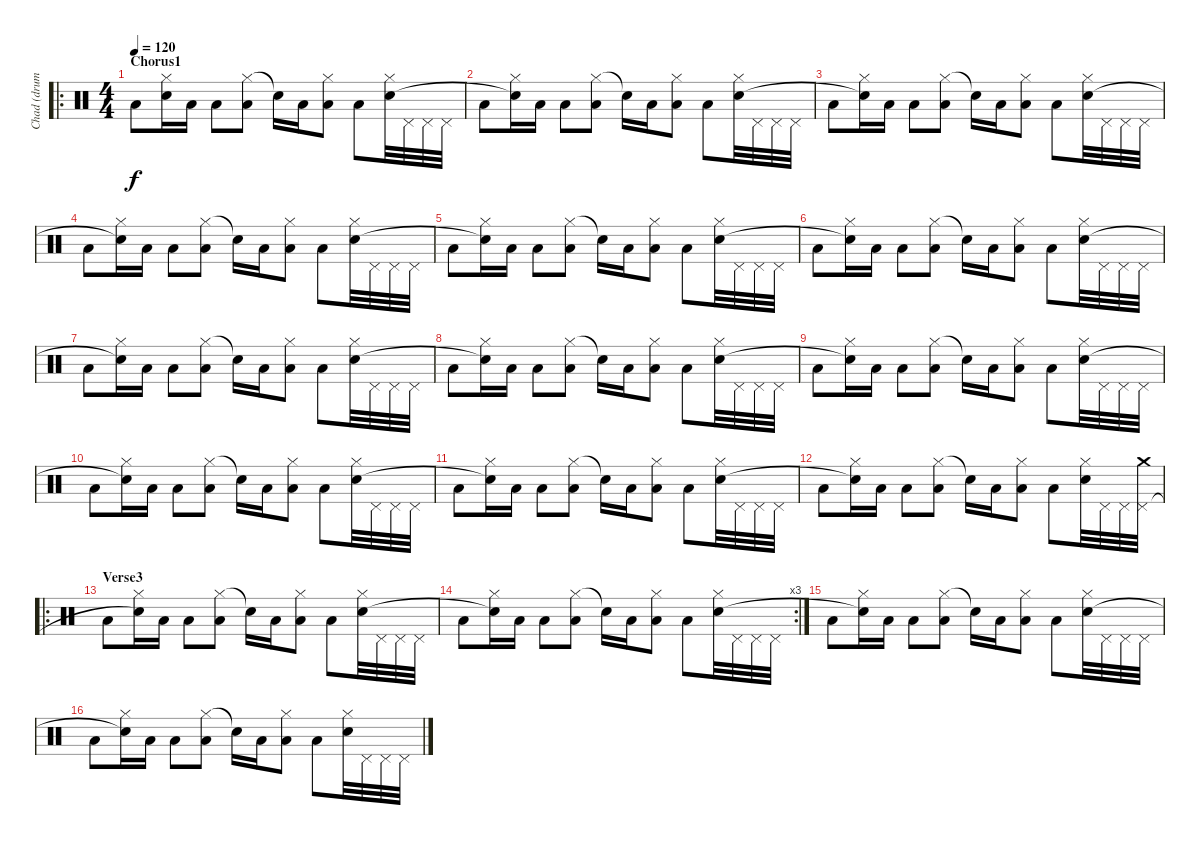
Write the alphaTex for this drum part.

\track ("Chad (drums)" "Chad (drum") {instrument percussion}
\staff {score}
\articulation defaults
\ro
\ts (4 4)
\section ("" "Chorus1")
\tempo 120
\clef neutral
\ks c "Low Tom (hit)".8{dy f}
("Hi-Hat (closed)" "Snare (hit)"{t}).16 "Low Tom (hit)".16 "Low Floor Tom (hit)".8 ("Hi-Hat (closed)" "Low Tom (hit)").8 "Snare (hit)"{t}.16 "Low Tom (hit)".16 ("Hi-Hat (closed)" "Low Floor Tom (hit)").8 "Low Tom (hit)".8 ("Hi-Hat (closed)" "Snare (hit) 2").32 "Pedal Hi-Hat (hit)".32 "Pedal Hi-Hat (hit)".32 "Pedal Hi-Hat (hit)".32 |
"Low Tom (hit)".8 ("Hi-Hat (closed)" "Snare (hit)"{t}).16 "Low Tom (hit)".16 "Low Floor Tom (hit)".8 ("Hi-Hat (closed)" "Low Tom (hit)").8 "Snare (hit)"{t}.16 "Low Tom (hit)".16 ("Hi-Hat (closed)" "Low Floor Tom (hit)").8 "Low Tom (hit)".8 ("Hi-Hat (closed)" "Snare (hit) 2").32 "Pedal Hi-Hat (hit)".32 "Pedal Hi-Hat (hit)".32 "Pedal Hi-Hat (hit)".32 |
"Low Tom (hit)".8 ("Hi-Hat (closed)" "Snare (hit)"{t}).16 "Low Tom (hit)".16 "Low Floor Tom (hit)".8 ("Hi-Hat (closed)" "Low Tom (hit)").8 "Snare (hit)"{t}.16 "Low Tom (hit)".16 ("Hi-Hat (closed)" "Low Floor Tom (hit)").8 "Low Tom (hit)".8 ("Hi-Hat (closed)" "Snare (hit) 2").32 "Pedal Hi-Hat (hit)".32 "Pedal Hi-Hat (hit)".32 "Pedal Hi-Hat (hit)".32 |
"Low Tom (hit)".8 ("Hi-Hat (closed)" "Snare (hit)"{t}).16 "Low Tom (hit)".16 "Low Floor Tom (hit)".8 ("Hi-Hat (closed)" "Low Tom (hit)").8 "Snare (hit)"{t}.16 "Low Tom (hit)".16 ("Hi-Hat (closed)" "Low Floor Tom (hit)").8 "Low Tom (hit)".8 ("Hi-Hat (closed)" "Snare (hit) 2").32 "Pedal Hi-Hat (hit)".32 "Pedal Hi-Hat (hit)".32 "Pedal Hi-Hat (hit)".32 |
"Low Tom (hit)".8 ("Hi-Hat (closed)" "Snare (hit)"{t}).16 "Low Tom (hit)".16 "Low Floor Tom (hit)".8 ("Hi-Hat (closed)" "Low Tom (hit)").8 "Snare (hit)"{t}.16 "Low Tom (hit)".16 ("Hi-Hat (closed)" "Low Floor Tom (hit)").8 "Low Tom (hit)".8 ("Hi-Hat (closed)" "Snare (hit) 2").32 "Pedal Hi-Hat (hit)".32 "Pedal Hi-Hat (hit)".32 "Pedal Hi-Hat (hit)".32 |
"Low Tom (hit)".8 ("Hi-Hat (closed)" "Snare (hit)"{t}).16 "Low Tom (hit)".16 "Low Floor Tom (hit)".8 ("Hi-Hat (closed)" "Low Tom (hit)").8 "Snare (hit)"{t}.16 "Low Tom (hit)".16 ("Hi-Hat (closed)" "Low Floor Tom (hit)").8 "Low Tom (hit)".8 ("Hi-Hat (closed)" "Snare (hit) 2").32 "Pedal Hi-Hat (hit)".32 "Pedal Hi-Hat (hit)".32 "Pedal Hi-Hat (hit)".32 |
"Low Tom (hit)".8 ("Hi-Hat (closed)" "Snare (hit)"{t}).16 "Low Tom (hit)".16 "Low Floor Tom (hit)".8 ("Hi-Hat (closed)" "Low Tom (hit)").8 "Snare (hit)"{t}.16 "Low Tom (hit)".16 ("Hi-Hat (closed)" "Low Floor Tom (hit)").8 "Low Tom (hit)".8 ("Hi-Hat (closed)" "Snare (hit) 2").32 "Pedal Hi-Hat (hit)".32 "Pedal Hi-Hat (hit)".32 "Pedal Hi-Hat (hit)".32 |
"Low Tom (hit)".8 ("Hi-Hat (closed)" "Snare (hit)"{t}).16 "Low Tom (hit)".16 "Low Floor Tom (hit)".8 ("Hi-Hat (closed)" "Low Tom (hit)").8 "Snare (hit)"{t}.16 "Low Tom (hit)".16 ("Hi-Hat (closed)" "Low Floor Tom (hit)").8 "Low Tom (hit)".8 ("Hi-Hat (closed)" "Snare (hit) 2").32 "Pedal Hi-Hat (hit)".32 "Pedal Hi-Hat (hit)".32 "Pedal Hi-Hat (hit)".32 |
"Low Tom (hit)".8 ("Hi-Hat (closed)" "Snare (hit)"{t}).16 "Low Tom (hit)".16 "Low Floor Tom (hit)".8 ("Hi-Hat (closed)" "Low Tom (hit)").8 "Snare (hit)"{t}.16 "Low Tom (hit)".16 ("Hi-Hat (closed)" "Low Floor Tom (hit)").8 "Low Tom (hit)".8 ("Hi-Hat (closed)" "Snare (hit) 2").32 "Pedal Hi-Hat (hit)".32 "Pedal Hi-Hat (hit)".32 "Pedal Hi-Hat (hit)".32 |
"Low Tom (hit)".8 ("Hi-Hat (closed)" "Snare (hit)"{t}).16 "Low Tom (hit)".16 "Low Floor Tom (hit)".8 ("Hi-Hat (closed)" "Low Tom (hit)").8 "Snare (hit)"{t}.16 "Low Tom (hit)".16 ("Hi-Hat (closed)" "Low Floor Tom (hit)").8 "Low Tom (hit)".8 ("Hi-Hat (closed)" "Snare (hit) 2").32 "Pedal Hi-Hat (hit)".32 "Pedal Hi-Hat (hit)".32 "Pedal Hi-Hat (hit)".32 |
"Low Tom (hit)".8 ("Hi-Hat (closed)" "Snare (hit)"{t}).16 "Low Tom (hit)".16 "Low Floor Tom (hit)".8 ("Hi-Hat (closed)" "Low Tom (hit)").8 "Snare (hit)"{t}.16 "Low Tom (hit)".16 ("Hi-Hat (closed)" "Low Floor Tom (hit)").8 "Low Tom (hit)".8 ("Hi-Hat (closed)" "Snare (hit) 2").32 "Pedal Hi-Hat (hit)".32 "Pedal Hi-Hat (hit)".32 "Pedal Hi-Hat (hit)".32 |
"Low Tom (hit)".8 ("Hi-Hat (closed)" "Snare (hit)"{t}).16 "Low Tom (hit)".16 "Low Floor Tom (hit)".8 ("Hi-Hat (closed)" "Low Tom (hit)").8 "Snare (hit)"{t}.16 "Low Tom (hit)".16 ("Hi-Hat (closed)" "Low Floor Tom (hit)").8 "Low Tom (hit)".8 ("Hi-Hat (closed)" "Snare (hit) 2").32 "Pedal Hi-Hat (hit)".32 "Pedal Hi-Hat (hit)".32 ("Crash medium (hit)" "Pedal Hi-Hat (hit)").32 |
\ro
\section ("" "Verse3")
"Low Tom (hit)".8 ("Hi-Hat (closed)" "Snare (hit)"{t}).16 "Low Tom (hit)".16 "Low Floor Tom (hit)".8 ("Hi-Hat (closed)" "Low Tom (hit)").8 "Snare (hit)"{t}.16 "Low Tom (hit)".16 ("Hi-Hat (closed)" "Low Floor Tom (hit)").8 "Low Tom (hit)".8 ("Hi-Hat (closed)" "Snare (hit) 2").32 "Pedal Hi-Hat (hit)".32 "Pedal Hi-Hat (hit)".32 "Pedal Hi-Hat (hit)".32 |
\rc 3 "Low Tom (hit)".8
("Hi-Hat (closed)" "Snare (hit)"{t}).16 "Low Tom (hit)".16 "Low Floor Tom (hit)".8 ("Hi-Hat (closed)" "Low Tom (hit)").8 "Snare (hit)"{t}.16 "Low Tom (hit)".16 ("Hi-Hat (closed)" "Low Floor Tom (hit)").8 "Low Tom (hit)".8 ("Hi-Hat (closed)" "Snare (hit) 2").32 "Pedal Hi-Hat (hit)".32 "Pedal Hi-Hat (hit)".32 "Pedal Hi-Hat (hit)".32 |
"Low Tom (hit)".8 ("Hi-Hat (closed)" "Snare (hit)"{t}).16 "Low Tom (hit)".16 "Low Floor Tom (hit)".8 ("Hi-Hat (closed)" "Low Tom (hit)").8 "Snare (hit)"{t}.16 "Low Tom (hit)".16 ("Hi-Hat (closed)" "Low Floor Tom (hit)").8 "Low Tom (hit)".8 ("Hi-Hat (closed)" "Snare (hit) 2").32 "Pedal Hi-Hat (hit)".32 "Pedal Hi-Hat (hit)".32 "Pedal Hi-Hat (hit)".32 |
"Low Tom (hit)".8 ("Hi-Hat (closed)" "Snare (hit)"{t}).16 "Low Tom (hit)".16 "Low Floor Tom (hit)".8 ("Hi-Hat (closed)" "Low Tom (hit)").8 "Snare (hit)"{t}.16 "Low Tom (hit)".16 ("Hi-Hat (closed)" "Low Floor Tom (hit)").8 "Low Tom (hit)".8 ("Hi-Hat (closed)" "Snare (hit) 2").32 "Pedal Hi-Hat (hit)".32 "Pedal Hi-Hat (hit)".32 "Pedal Hi-Hat (hit)".32
